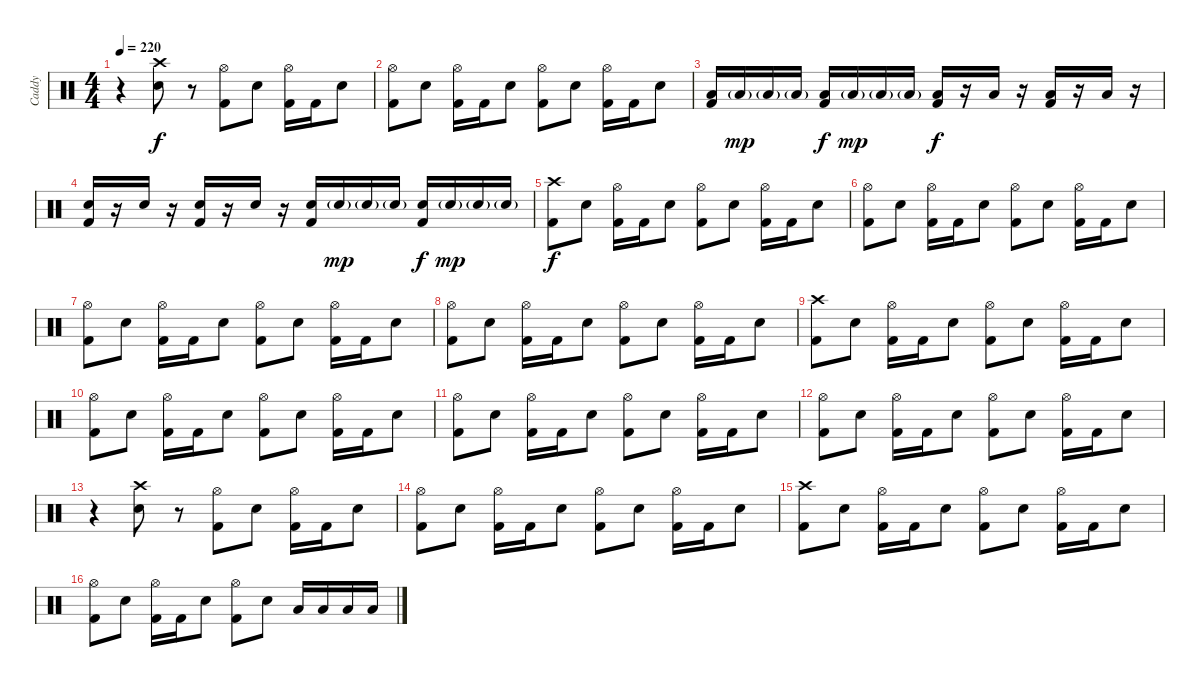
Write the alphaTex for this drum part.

\track ("Caddy" "Caddy") {instrument percussion}
\staff {score}
\articulation defaults
\ts (4 4)
\tempo 220
\clef neutral
\ks c
r.4{dy f} ("Crash high (hit)" "Electric Snare (hit)").8 r.8 ("Hi-Hat (open)" "Kick (hit) 2").8 "Electric Snare (hit)".8 ("Hi-Hat (open)" "Kick (hit) 2").16 "Kick (hit) 2".16 "Electric Snare (hit)".8 |
("Hi-Hat (open)" "Kick (hit) 2").8 "Electric Snare (hit)".8 ("Hi-Hat (open)" "Kick (hit) 2").16 "Kick (hit) 2".16 "Electric Snare (hit)".8 ("Hi-Hat (open)" "Kick (hit) 2").8 "Electric Snare (hit)".8 ("Hi-Hat (open)" "Kick (hit) 2").16 "Kick (hit) 2".16 "Electric Snare (hit)".8 |
("Low Floor Tom (hit)" "Kick (hit) 2").16 "Low Floor Tom (hit)"{g}.16{dy mp} "Low Floor Tom (hit)"{g}.16 "Low Floor Tom (hit)"{g}.16 ("Low Floor Tom (hit)" "Kick (hit) 2").16{dy f} "Low Floor Tom (hit)"{g}.16{dy mp} "Low Floor Tom (hit)"{g}.16 "Low Floor Tom (hit)"{g}.16 ("Low Floor Tom (hit)" "Kick (hit) 2").16{dy f} r.16 "Low Floor Tom (hit)".16 r.16 ("Low Floor Tom (hit)" "Kick (hit) 2").16 r.16 "Low Floor Tom (hit)".16 r.16 |
("Electric Snare (hit)" "Kick (hit) 2").16 r.16 "Electric Snare (hit)".16 r.16 ("Electric Snare (hit)" "Kick (hit) 2").16 r.16 "Electric Snare (hit)".16 r.16 ("Electric Snare (hit)" "Kick (hit) 2").16 "Electric Snare (hit)"{g}.16{dy mp} "Electric Snare (hit)"{g}.16 "Electric Snare (hit)"{g}.16 ("Electric Snare (hit)" "Kick (hit) 2").16{dy f} "Electric Snare (hit)"{g}.16{dy mp} "Electric Snare (hit)"{g}.16 "Electric Snare (hit)"{g}.16 |
("Crash high (hit)" "Kick (hit) 2").8{dy f} "Electric Snare (hit)".8 ("Hi-Hat (open)" "Kick (hit) 2").16 "Kick (hit) 2".16 "Electric Snare (hit)".8 ("Hi-Hat (open)" "Kick (hit) 2").8 "Electric Snare (hit)".8 ("Hi-Hat (open)" "Kick (hit) 2").16 "Kick (hit) 2".16 "Electric Snare (hit)".8 |
("Hi-Hat (open)" "Kick (hit) 2").8 "Electric Snare (hit)".8 ("Hi-Hat (open)" "Kick (hit) 2").16 "Kick (hit) 2".16 "Electric Snare (hit)".8 ("Hi-Hat (open)" "Kick (hit) 2").8 "Electric Snare (hit)".8 ("Hi-Hat (open)" "Kick (hit) 2").16 "Kick (hit) 2".16 "Electric Snare (hit)".8 |
("Hi-Hat (open)" "Kick (hit) 2").8 "Electric Snare (hit)".8 ("Hi-Hat (open)" "Kick (hit) 2").16 "Kick (hit) 2".16 "Electric Snare (hit)".8 ("Hi-Hat (open)" "Kick (hit) 2").8 "Electric Snare (hit)".8 ("Hi-Hat (open)" "Kick (hit) 2").16 "Kick (hit) 2".16 "Electric Snare (hit)".8 |
("Hi-Hat (open)" "Kick (hit) 2").8 "Electric Snare (hit)".8 ("Hi-Hat (open)" "Kick (hit) 2").16 "Kick (hit) 2".16 "Electric Snare (hit)".8 ("Hi-Hat (open)" "Kick (hit) 2").8 "Electric Snare (hit)".8 ("Hi-Hat (open)" "Kick (hit) 2").16 "Kick (hit) 2".16 "Electric Snare (hit)".8 |
("Crash high (hit)" "Kick (hit) 2").8 "Electric Snare (hit)".8 ("Hi-Hat (open)" "Kick (hit) 2").16 "Kick (hit) 2".16 "Electric Snare (hit)".8 ("Hi-Hat (open)" "Kick (hit) 2").8 "Electric Snare (hit)".8 ("Hi-Hat (open)" "Kick (hit) 2").16 "Kick (hit) 2".16 "Electric Snare (hit)".8 |
("Hi-Hat (open)" "Kick (hit) 2").8 "Electric Snare (hit)".8 ("Hi-Hat (open)" "Kick (hit) 2").16 "Kick (hit) 2".16 "Electric Snare (hit)".8 ("Hi-Hat (open)" "Kick (hit) 2").8 "Electric Snare (hit)".8 ("Hi-Hat (open)" "Kick (hit) 2").16 "Kick (hit) 2".16 "Electric Snare (hit)".8 |
("Hi-Hat (open)" "Kick (hit) 2").8 "Electric Snare (hit)".8 ("Hi-Hat (open)" "Kick (hit) 2").16 "Kick (hit) 2".16 "Electric Snare (hit)".8 ("Hi-Hat (open)" "Kick (hit) 2").8 "Electric Snare (hit)".8 ("Hi-Hat (open)" "Kick (hit) 2").16 "Kick (hit) 2".16 "Electric Snare (hit)".8 |
("Hi-Hat (open)" "Kick (hit) 2").8 "Electric Snare (hit)".8 ("Hi-Hat (open)" "Kick (hit) 2").16 "Kick (hit) 2".16 "Electric Snare (hit)".8 ("Hi-Hat (open)" "Kick (hit) 2").8 "Electric Snare (hit)".8 ("Hi-Hat (open)" "Kick (hit) 2").16 "Kick (hit) 2".16 "Electric Snare (hit)".8 |
r.4 ("Crash high (hit)" "Electric Snare (hit)").8 r.8 ("Hi-Hat (open)" "Kick (hit) 2").8 "Electric Snare (hit)".8 ("Hi-Hat (open)" "Kick (hit) 2").16 "Kick (hit) 2".16 "Electric Snare (hit)".8 |
("Hi-Hat (open)" "Kick (hit) 2").8 "Electric Snare (hit)".8 ("Hi-Hat (open)" "Kick (hit) 2").16 "Kick (hit) 2".16 "Electric Snare (hit)".8 ("Hi-Hat (open)" "Kick (hit) 2").8 "Electric Snare (hit)".8 ("Hi-Hat (open)" "Kick (hit) 2").16 "Kick (hit) 2".16 "Electric Snare (hit)".8 |
("Crash high (hit)" "Kick (hit) 2").8 "Electric Snare (hit)".8 ("Hi-Hat (open)" "Kick (hit) 2").16 "Kick (hit) 2".16 "Electric Snare (hit)".8 ("Hi-Hat (open)" "Kick (hit) 2").8 "Electric Snare (hit)".8 ("Hi-Hat (open)" "Kick (hit) 2").16 "Kick (hit) 2".16 "Electric Snare (hit)".8 |
("Hi-Hat (open)" "Kick (hit) 2").8 "Electric Snare (hit)".8 ("Hi-Hat (open)" "Kick (hit) 2").16 "Kick (hit) 2".16 "Electric Snare (hit)".8 ("Hi-Hat (open)" "Kick (hit) 2").8 "Electric Snare (hit)".8 "Low Tom (hit)".16 "Low Tom (hit)".16 "Low Floor Tom (hit)".16 "Low Floor Tom (hit)".16
